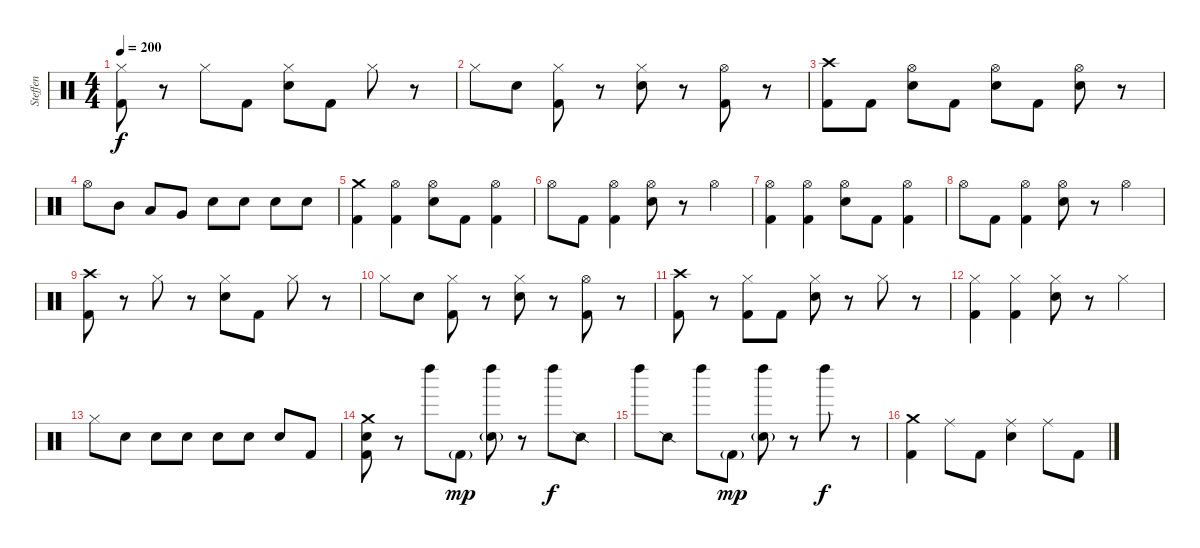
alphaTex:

\track ("Steffen" "Steffen") {instrument percussion}
\staff {score}
\articulation defaults
\ts (4 4)
\tempo 200
\clef neutral
\ks c
("Hi-Hat (closed)" "Kick (hit) 2").8{dy f} r.8 "Hi-Hat (closed)".8 "Kick (hit) 2".8 ("Hi-Hat (closed)" "Electric Snare (hit)").8 "Kick (hit) 2".8 "Hi-Hat (closed)".8 r.8 |
"Hi-Hat (closed)".8 "Electric Snare (hit)".8 ("Hi-Hat (closed)" "Kick (hit) 2").8 r.8 ("Hi-Hat (closed)" "Electric Snare (hit)").8 r.8 ("Hi-Hat (open)" "Kick (hit) 2").8 r.8 |
("Crash high (hit)" "Kick (hit) 2").8 "Kick (hit) 2".8 ("Hi-Hat (open)" "Electric Snare (hit)").8 "Kick (hit) 2".8 ("Hi-Hat (open)" "Electric Snare (hit)").8 "Kick (hit) 2".8 ("Hi-Hat (open)" "Electric Snare (hit)").8 r.8 |
"Hi-Hat (open)".8 "Mid Tom (hit)".8 "Low Tom (hit)".8 "Very Low Tom (hit)".8 "Electric Snare (hit)".8 "Electric Snare (hit)".8 "Electric Snare (hit)".8 "Electric Snare (hit)".8 |
("Crash medium (hit)" "Kick (hit) 2").4 ("Hi-Hat (open)" "Kick (hit) 2").4 ("Hi-Hat (open)" "Electric Snare (hit)").8 "Kick (hit) 2".8 ("Hi-Hat (open)" "Kick (hit) 2").4 |
"Hi-Hat (open)".8 "Kick (hit) 2".8 ("Hi-Hat (open)" "Kick (hit) 2").4 ("Hi-Hat (open)" "Electric Snare (hit)").8 r.8 "Hi-Hat (open)".4 |
("Hi-Hat (open)" "Kick (hit) 2").4 ("Hi-Hat (open)" "Kick (hit) 2").4 ("Hi-Hat (open)" "Electric Snare (hit)").8 "Kick (hit) 2".8 ("Hi-Hat (open)" "Kick (hit) 2").4 |
"Hi-Hat (open)".8 "Kick (hit) 2".8 ("Hi-Hat (open)" "Kick (hit) 2").4 ("Hi-Hat (open)" "Electric Snare (hit)").8 r.8 "Hi-Hat (open)".4 |
("Crash high (hit)" "Kick (hit) 2").8 r.8 "Hi-Hat (closed)".8 r.8 ("Hi-Hat (closed)" "Electric Snare (hit)").8 "Kick (hit) 2".8 "Hi-Hat (closed)".8 r.8 |
"Hi-Hat (closed)".8 "Electric Snare (hit)".8 ("Hi-Hat (closed)" "Kick (hit) 2").8 r.8 ("Hi-Hat (closed)" "Electric Snare (hit)").8 r.8 ("Hi-Hat (open)" "Kick (hit) 2").8 r.8 |
("Crash high (hit)" "Kick (hit) 2").8 r.8 ("Hi-Hat (closed)" "Kick (hit) 2").8 "Kick (hit) 2".8 ("Hi-Hat (closed)" "Electric Snare (hit)").8 r.8 "Hi-Hat (closed)".8 r.8 |
("Hi-Hat (closed)" "Kick (hit) 2").4 ("Hi-Hat (closed)" "Kick (hit) 2").4 ("Hi-Hat (closed)" "Electric Snare (hit)").8 r.8 "Hi-Hat (closed)".4 |
"Hi-Hat (closed)".8 "Electric Snare (hit)".8 "Electric Snare (hit)".8 "Electric Snare (hit)".8 "Electric Snare (hit)".8 "Electric Snare (hit)".8 "Electric Snare (hit)".8 "Kick (hit) 2".8 |
("Crash medium (hit)" "Kick (hit) 2" "Electric Snare (hit)").8 r.8 "Left Maraca (hit)".8 "Kick (hit) 2"{g}.8{dy mp} ("Left Maraca (hit)" "Electric Snare (hit)"{g}).8 r.8 "Left Maraca (hit)".8{dy f} "Snare (side stick) 2".8 |
"Left Maraca (hit)".8 "Snare (side stick) 2".8 "Left Maraca (hit)".8 "Kick (hit) 2"{g}.8{dy mp} ("Left Maraca (hit)" "Electric Snare (hit)"{g}).8 r.8 "Left Maraca (hit)".8{dy f} r.8 |
("Crash medium (hit)" "Kick (hit) 2").4 "Ride (middle)".8 "Kick (hit) 2".8 ("Ride (middle)" "Electric Snare (hit)").4 "Ride (middle)".8 "Kick (hit) 2".8
